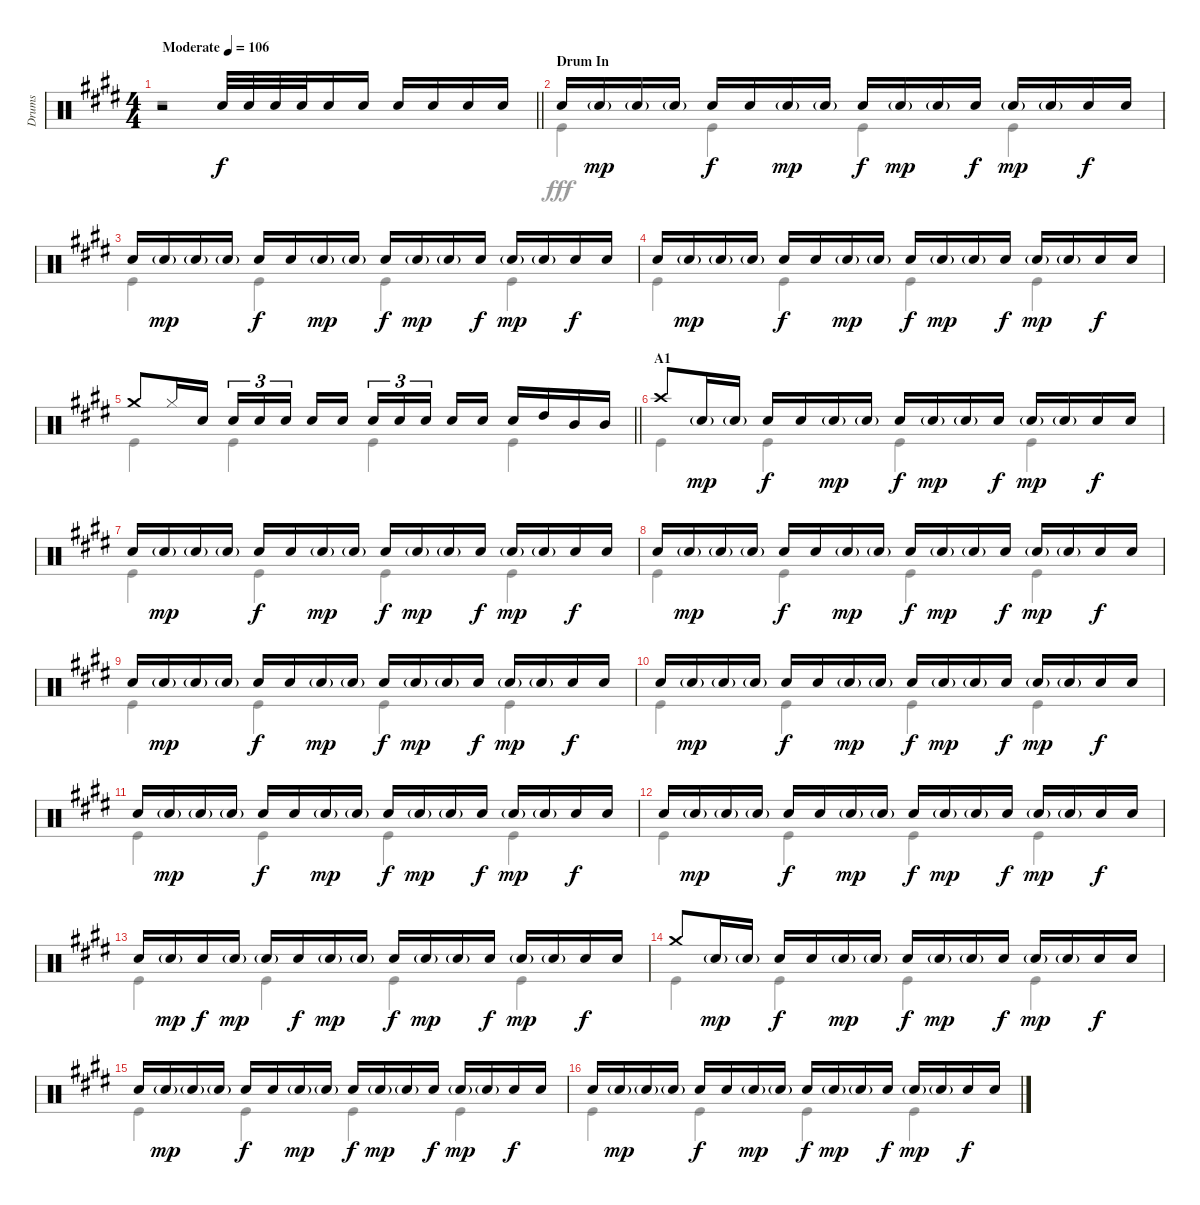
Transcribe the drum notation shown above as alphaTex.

\track ("Drums" "Drums") {instrument percussion}
\staff {score}
\articulation defaults
\voice
\ts (4 4)
\tempo (106 "Moderate")
\clef neutral
\barLineRight lightlight
\ks e
r.2{dy f volume 0} "Snare (hit) 2".32{volume 14} "Snare (hit) 2".32 "Snare (hit) 2".32 "Snare (hit) 2".32 "Snare (hit) 2".16 "Snare (hit) 2".16 "Snare (hit) 2".16 "Snare (hit) 2".16 "Snare (hit) 2".16 "Snare (hit) 2".16 |
\section ("" "Drum In")
"Snare (hit) 2".16 "Snare (hit) 2"{g}.16{dy mp} "Snare (hit) 2"{g}.16 "Snare (hit) 2"{g}.16 "Snare (hit) 2".16{dy f} "Snare (hit) 2".16 "Snare (hit) 2"{g}.16{dy mp} "Snare (hit) 2"{g}.16 "Snare (hit) 2".16{dy f} "Snare (hit) 2"{g}.16{dy mp} "Snare (hit) 2"{g}.16 "Snare (hit) 2".16{dy f} "Snare (hit) 2"{g}.16{dy mp} "Snare (hit) 2"{g}.16 "Snare (hit) 2".16{dy f} "Snare (hit) 2".16 |
"Snare (hit) 2".16 "Snare (hit) 2"{g}.16{dy mp} "Snare (hit) 2"{g}.16 "Snare (hit) 2"{g}.16 "Snare (hit) 2".16{dy f} "Snare (hit) 2".16 "Snare (hit) 2"{g}.16{dy mp} "Snare (hit) 2"{g}.16 "Snare (hit) 2".16{dy f} "Snare (hit) 2"{g}.16{dy mp} "Snare (hit) 2"{g}.16 "Snare (hit) 2".16{dy f} "Snare (hit) 2"{g}.16{dy mp} "Snare (hit) 2"{g}.16 "Snare (hit) 2".16{dy f} "Snare (hit) 2".16 |
"Snare (hit) 2".16 "Snare (hit) 2"{g}.16{dy mp} "Snare (hit) 2"{g}.16 "Snare (hit) 2"{g}.16 "Snare (hit) 2".16{dy f} "Snare (hit) 2".16 "Snare (hit) 2"{g}.16{dy mp} "Snare (hit) 2"{g}.16 "Snare (hit) 2".16{dy f} "Snare (hit) 2"{g}.16{dy mp} "Snare (hit) 2"{g}.16 "Snare (hit) 2".16{dy f} "Snare (hit) 2"{g}.16{dy mp} "Snare (hit) 2"{g}.16 "Snare (hit) 2".16{dy f} "Snare (hit) 2".16 |
\barLineRight lightlight "Crash medium (hit)".8 "Hi-Hat (closed)".16 "Snare (hit) 2".16 "Snare (hit) 2".16{tu (3 2)} "Snare (hit) 2".16{tu (3 2)} "Snare (hit) 2".16{tu (3 2) beam splitsecondary} "Snare (hit) 2".16 "Snare (hit) 2".16 "Snare (hit) 2".16{tu (3 2)} "Snare (hit) 2".16{tu (3 2)} "Snare (hit) 2".16{tu (3 2) beam splitsecondary} "Snare (hit) 2".16 "Snare (hit) 2".16 "Snare (hit) 2".16 "High Tom (hit)".16 "Mid Tom (hit)".16 "Mid Tom (hit)".16
|
\section ("" "A1")
"Crash high (hit)".8 "Snare (hit) 2"{g}.16{dy mp} "Snare (hit) 2"{g}.16 "Snare (hit) 2".16{dy f} "Snare (hit) 2".16 "Snare (hit) 2"{g}.16{dy mp} "Snare (hit) 2"{g}.16 "Snare (hit) 2".16{dy f} "Snare (hit) 2"{g}.16{dy mp} "Snare (hit) 2"{g}.16 "Snare (hit) 2".16{dy f} "Snare (hit) 2"{g}.16{dy mp} "Snare (hit) 2"{g}.16 "Snare (hit) 2".16{dy f} "Snare (hit) 2".16 |
"Snare (hit) 2".16 "Snare (hit) 2"{g}.16{dy mp} "Snare (hit) 2"{g}.16 "Snare (hit) 2"{g}.16 "Snare (hit) 2".16{dy f} "Snare (hit) 2".16 "Snare (hit) 2"{g}.16{dy mp} "Snare (hit) 2"{g}.16 "Snare (hit) 2".16{dy f} "Snare (hit) 2"{g}.16{dy mp} "Snare (hit) 2"{g}.16 "Snare (hit) 2".16{dy f} "Snare (hit) 2"{g}.16{dy mp} "Snare (hit) 2"{g}.16 "Snare (hit) 2".16{dy f} "Snare (hit) 2".16 |
"Snare (hit) 2".16 "Snare (hit) 2"{g}.16{dy mp} "Snare (hit) 2"{g}.16 "Snare (hit) 2"{g}.16 "Snare (hit) 2".16{dy f} "Snare (hit) 2".16 "Snare (hit) 2"{g}.16{dy mp} "Snare (hit) 2"{g}.16 "Snare (hit) 2".16{dy f} "Snare (hit) 2"{g}.16{dy mp} "Snare (hit) 2"{g}.16 "Snare (hit) 2".16{dy f} "Snare (hit) 2"{g}.16{dy mp} "Snare (hit) 2"{g}.16 "Snare (hit) 2".16{dy f} "Snare (hit) 2".16 |
"Snare (hit) 2".16 "Snare (hit) 2"{g}.16{dy mp} "Snare (hit) 2"{g}.16 "Snare (hit) 2"{g}.16 "Snare (hit) 2".16{dy f} "Snare (hit) 2".16 "Snare (hit) 2"{g}.16{dy mp} "Snare (hit) 2"{g}.16 "Snare (hit) 2".16{dy f} "Snare (hit) 2"{g}.16{dy mp} "Snare (hit) 2"{g}.16 "Snare (hit) 2".16{dy f} "Snare (hit) 2"{g}.16{dy mp} "Snare (hit) 2"{g}.16 "Snare (hit) 2".16{dy f} "Snare (hit) 2".16 |
"Snare (hit) 2".16 "Snare (hit) 2"{g}.16{dy mp} "Snare (hit) 2"{g}.16 "Snare (hit) 2"{g}.16 "Snare (hit) 2".16{dy f} "Snare (hit) 2".16 "Snare (hit) 2"{g}.16{dy mp} "Snare (hit) 2"{g}.16 "Snare (hit) 2".16{dy f} "Snare (hit) 2"{g}.16{dy mp} "Snare (hit) 2"{g}.16 "Snare (hit) 2".16{dy f} "Snare (hit) 2"{g}.16{dy mp} "Snare (hit) 2"{g}.16 "Snare (hit) 2".16{dy f} "Snare (hit) 2".16 |
"Snare (hit) 2".16 "Snare (hit) 2"{g}.16{dy mp} "Snare (hit) 2"{g}.16 "Snare (hit) 2"{g}.16 "Snare (hit) 2".16{dy f} "Snare (hit) 2".16 "Snare (hit) 2"{g}.16{dy mp} "Snare (hit) 2"{g}.16 "Snare (hit) 2".16{dy f} "Snare (hit) 2"{g}.16{dy mp} "Snare (hit) 2"{g}.16 "Snare (hit) 2".16{dy f} "Snare (hit) 2"{g}.16{dy mp} "Snare (hit) 2"{g}.16 "Snare (hit) 2".16{dy f} "Snare (hit) 2".16 |
"Snare (hit) 2".16 "Snare (hit) 2"{g}.16{dy mp} "Snare (hit) 2"{g}.16 "Snare (hit) 2"{g}.16 "Snare (hit) 2".16{dy f} "Snare (hit) 2".16 "Snare (hit) 2"{g}.16{dy mp} "Snare (hit) 2"{g}.16 "Snare (hit) 2".16{dy f} "Snare (hit) 2"{g}.16{dy mp} "Snare (hit) 2"{g}.16 "Snare (hit) 2".16{dy f} "Snare (hit) 2"{g}.16{dy mp} "Snare (hit) 2"{g}.16 "Snare (hit) 2".16{dy f} "Snare (hit) 2".16 |
"Snare (hit) 2".16 "Snare (hit) 2"{g}.16{dy mp} "Snare (hit) 2".16{dy f} "Snare (hit) 2"{g}.16{dy mp} "Snare (hit) 2"{g}.16 "Snare (hit) 2".16{dy f} "Snare (hit) 2"{g}.16{dy mp} "Snare (hit) 2"{g}.16 "Snare (hit) 2".16{dy f} "Snare (hit) 2"{g}.16{dy mp} "Snare (hit) 2"{g}.16 "Snare (hit) 2".16{dy f} "Snare (hit) 2"{g}.16{dy mp} "Snare (hit) 2"{g}.16 "Snare (hit) 2".16{dy f} "Snare (hit) 2".16 |
"Crash medium (hit)".8 "Snare (hit) 2"{g}.16{dy mp} "Snare (hit) 2"{g}.16 "Snare (hit) 2".16{dy f} "Snare (hit) 2".16 "Snare (hit) 2"{g}.16{dy mp} "Snare (hit) 2"{g}.16 "Snare (hit) 2".16{dy f} "Snare (hit) 2"{g}.16{dy mp} "Snare (hit) 2"{g}.16 "Snare (hit) 2".16{dy f} "Snare (hit) 2"{g}.16{dy mp} "Snare (hit) 2"{g}.16 "Snare (hit) 2".16{dy f} "Snare (hit) 2".16 |
"Snare (hit) 2".16 "Snare (hit) 2"{g}.16{dy mp} "Snare (hit) 2"{g}.16 "Snare (hit) 2"{g}.16 "Snare (hit) 2".16{dy f} "Snare (hit) 2".16 "Snare (hit) 2"{g}.16{dy mp} "Snare (hit) 2"{g}.16 "Snare (hit) 2".16{dy f} "Snare (hit) 2"{g}.16{dy mp} "Snare (hit) 2"{g}.16 "Snare (hit) 2".16{dy f} "Snare (hit) 2"{g}.16{dy mp} "Snare (hit) 2"{g}.16 "Snare (hit) 2".16{dy f} "Snare (hit) 2".16 |
"Snare (hit) 2".16 "Snare (hit) 2"{g}.16{dy mp} "Snare (hit) 2"{g}.16 "Snare (hit) 2"{g}.16 "Snare (hit) 2".16{dy f} "Snare (hit) 2".16 "Snare (hit) 2"{g}.16{dy mp} "Snare (hit) 2"{g}.16 "Snare (hit) 2".16{dy f} "Snare (hit) 2"{g}.16{dy mp} "Snare (hit) 2"{g}.16 "Snare (hit) 2".16{dy f} "Snare (hit) 2"{g}.16{dy mp} "Snare (hit) 2"{g}.16 "Snare (hit) 2".16{dy f} "Snare (hit) 2".16
\voice
\clef neutral
\ottava regular
\simile none
\barLineRight lightlight
\ks e
r.1{dy fff} |
"Kick (hit)".4 "Kick (hit)".4 "Kick (hit)".4 "Kick (hit)".4 |
"Kick (hit)".4 "Kick (hit)".4 "Kick (hit)".4 "Kick (hit)".4 |
"Kick (hit)".4 "Kick (hit)".4 "Kick (hit)".4 "Kick (hit)".4 |
\barLineRight lightlight "Kick (hit)".4 "Kick (hit)".4 "Kick (hit)".4 "Kick (hit)".4
|
"Kick (hit)".4 "Kick (hit)".4 "Kick (hit)".4 "Kick (hit)".4 |
"Kick (hit)".4 "Kick (hit)".4 "Kick (hit)".4 "Kick (hit)".4 |
"Kick (hit)".4 "Kick (hit)".4 "Kick (hit)".4 "Kick (hit)".4 |
"Kick (hit)".4 "Kick (hit)".4 "Kick (hit)".4 "Kick (hit)".4 |
"Kick (hit)".4 "Kick (hit)".4 "Kick (hit)".4 "Kick (hit)".4 |
"Kick (hit)".4 "Kick (hit)".4 "Kick (hit)".4 "Kick (hit)".4 |
"Kick (hit)".4 "Kick (hit)".4 "Kick (hit)".4 "Kick (hit)".4 |
"Kick (hit)".4 "Kick (hit)".4 "Kick (hit)".4 "Kick (hit)".4 |
"Kick (hit)".4 "Kick (hit)".4 "Kick (hit)".4 "Kick (hit)".4 |
"Kick (hit)".4 "Kick (hit)".4 "Kick (hit)".4 "Kick (hit)".4 |
"Kick (hit)".4 "Kick (hit)".4 "Kick (hit)".4 "Kick (hit)".4
